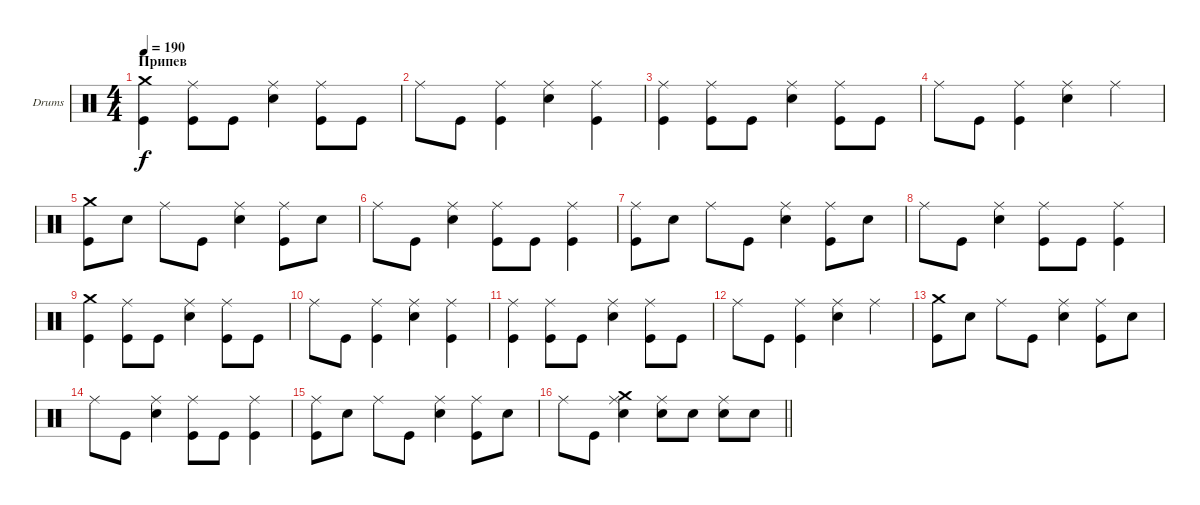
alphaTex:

\bracketExtendMode groupsimilarinstruments
\firstSystemTrackNameOrientation horizontal
\otherSystemsTrackNameOrientation horizontal
\track ("Максим Удалов" "Drums") {instrument percussion}
\staff {score}
\articulation defaults
\ts (4 4)
\section ("" "Припев")
\tempo 190
\clef neutral
\ks c
("Kick (hit)" "Crash medium (hit)").4{dy f} ("Kick (hit)" "Ride (middle)").8 "Kick (hit)".8 ("Snare (hit) 2" "Ride (middle)").4 ("Kick (hit)" "Ride (middle)").8 "Kick (hit)".8 |
"Ride (middle)".8 "Kick (hit)".8 ("Kick (hit)" "Ride (middle)").4 ("Snare (hit) 2" "Ride (middle)").4 ("Kick (hit)" "Ride (middle)").4 |
("Kick (hit)" "Ride (middle)").4 ("Kick (hit)" "Ride (middle)").8 "Kick (hit)".8 ("Snare (hit) 2" "Ride (middle)").4 ("Kick (hit)" "Ride (middle)").8 "Kick (hit)".8 |
"Ride (middle)".8 "Kick (hit)".8 ("Kick (hit)" "Ride (middle)").4 ("Snare (hit) 2" "Ride (middle)").4 "Ride (middle)".4 |
("Kick (hit)" "Crash medium (hit)").8 "Snare (hit) 2".8 "Ride (middle)".8 "Kick (hit)".8 ("Snare (hit) 2" "Ride (middle)").4 ("Kick (hit)" "Ride (middle)").8 "Snare (hit) 2".8 |
"Ride (middle)".8 "Kick (hit)".8 ("Snare (hit) 2" "Ride (middle)").4 ("Kick (hit)" "Ride (middle)").8 "Kick (hit)".8 ("Kick (hit)" "Ride (middle)").4 |
("Kick (hit)" "Ride (middle)").8 "Snare (hit) 2".8 "Ride (middle)".8 "Kick (hit)".8 ("Snare (hit) 2" "Ride (middle)").4 ("Kick (hit)" "Ride (middle)").8 "Snare (hit) 2".8 |
"Ride (middle)".8 "Kick (hit)".8 ("Snare (hit) 2" "Ride (middle)").4 ("Kick (hit)" "Ride (middle)").8 "Kick (hit)".8 ("Kick (hit)" "Ride (middle)").4 |
("Kick (hit)" "Crash medium (hit)").4 ("Kick (hit)" "Ride (middle)").8 "Kick (hit)".8 ("Snare (hit) 2" "Ride (middle)").4 ("Kick (hit)" "Ride (middle)").8 "Kick (hit)".8 |
"Ride (middle)".8 "Kick (hit)".8 ("Kick (hit)" "Ride (middle)").4 ("Snare (hit) 2" "Ride (middle)").4 ("Kick (hit)" "Ride (middle)").4 |
("Kick (hit)" "Ride (middle)").4 ("Kick (hit)" "Ride (middle)").8 "Kick (hit)".8 ("Snare (hit) 2" "Ride (middle)").4 ("Kick (hit)" "Ride (middle)").8 "Kick (hit)".8 |
"Ride (middle)".8 "Kick (hit)".8 ("Kick (hit)" "Ride (middle)").4 ("Snare (hit) 2" "Ride (middle)").4 "Ride (middle)".4 |
("Kick (hit)" "Crash medium (hit)").8 "Snare (hit) 2".8 "Ride (middle)".8 "Kick (hit)".8 ("Snare (hit) 2" "Ride (middle)").4 ("Kick (hit)" "Ride (middle)").8 "Snare (hit) 2".8 |
"Ride (middle)".8 "Kick (hit)".8 ("Snare (hit) 2" "Ride (middle)").4 ("Kick (hit)" "Ride (middle)").8 "Kick (hit)".8 ("Kick (hit)" "Ride (middle)").4 |
("Kick (hit)" "Ride (middle)").8 "Snare (hit) 2".8 "Ride (middle)".8 "Kick (hit)".8 ("Snare (hit) 2" "Ride (middle)").4 ("Kick (hit)" "Ride (middle)").8 "Snare (hit) 2".8 |
\barLineRight lightlight "Ride (middle)".8 "Kick (hit)".8
("Snare (hit) 2" "Crash medium (hit)" "Ride (middle)").4 ("Snare (hit) 2" "Ride (middle)").8 "Snare (hit) 2".8 ("Snare (hit) 2" "Ride (middle)").8 "Snare (hit) 2".8
